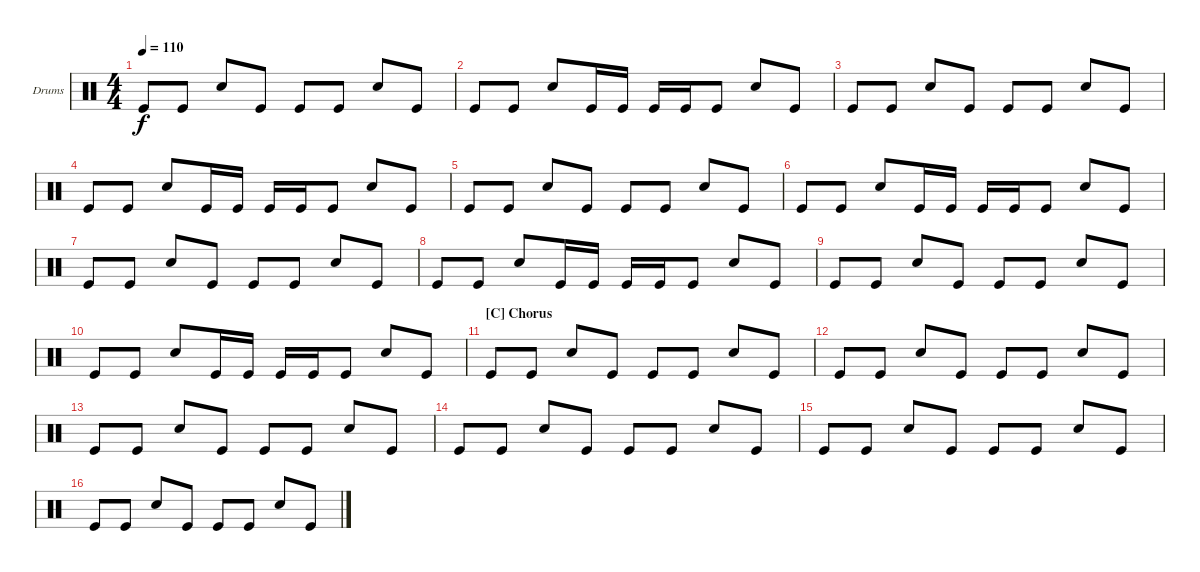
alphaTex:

\bracketExtendMode groupsimilarinstruments
\firstSystemTrackNameOrientation horizontal
\otherSystemsTrackNameOrientation horizontal
\track ("Electric Drum Kit" "Drums") {instrument percussion}
\staff {score}
\articulation defaults
\ts (4 4)
\tempo 110
\clef neutral
\ks c "Kick (hit)".8{dy f} "Kick (hit)".8 "Snare (hit) 2".8 "Kick (hit)".8 "Kick (hit)".8 "Kick (hit)".8 "Snare (hit) 2".8 "Kick (hit)".8
|
"Kick (hit)".8 "Kick (hit)".8 "Snare (hit) 2".8 "Kick (hit)".16 "Kick (hit)".16 "Kick (hit)".16 "Kick (hit)".16 "Kick (hit)".8 "Snare (hit) 2".8 "Kick (hit)".8 |
"Kick (hit)".8 "Kick (hit)".8 "Snare (hit) 2".8 "Kick (hit)".8 "Kick (hit)".8 "Kick (hit)".8 "Snare (hit) 2".8 "Kick (hit)".8 |
"Kick (hit)".8 "Kick (hit)".8 "Snare (hit) 2".8 "Kick (hit)".16 "Kick (hit)".16 "Kick (hit)".16 "Kick (hit)".16 "Kick (hit)".8 "Snare (hit) 2".8 "Kick (hit)".8 |
"Kick (hit)".8 "Kick (hit)".8 "Snare (hit) 2".8 "Kick (hit)".8 "Kick (hit)".8 "Kick (hit)".8 "Snare (hit) 2".8 "Kick (hit)".8 |
"Kick (hit)".8 "Kick (hit)".8 "Snare (hit) 2".8 "Kick (hit)".16 "Kick (hit)".16 "Kick (hit)".16 "Kick (hit)".16 "Kick (hit)".8 "Snare (hit) 2".8 "Kick (hit)".8 |
"Kick (hit)".8 "Kick (hit)".8 "Snare (hit) 2".8 "Kick (hit)".8 "Kick (hit)".8 "Kick (hit)".8 "Snare (hit) 2".8 "Kick (hit)".8 |
"Kick (hit)".8 "Kick (hit)".8 "Snare (hit) 2".8 "Kick (hit)".16 "Kick (hit)".16 "Kick (hit)".16 "Kick (hit)".16 "Kick (hit)".8 "Snare (hit) 2".8 "Kick (hit)".8 |
"Kick (hit)".8 "Kick (hit)".8 "Snare (hit) 2".8 "Kick (hit)".8 "Kick (hit)".8 "Kick (hit)".8 "Snare (hit) 2".8 "Kick (hit)".8 |
"Kick (hit)".8 "Kick (hit)".8 "Snare (hit) 2".8 "Kick (hit)".16 "Kick (hit)".16 "Kick (hit)".16 "Kick (hit)".16 "Kick (hit)".8 "Snare (hit) 2".8 "Kick (hit)".8 |
\section ("C" "Chorus")
"Kick (hit)".8 "Kick (hit)".8 "Snare (hit) 2".8 "Kick (hit)".8 "Kick (hit)".8 "Kick (hit)".8 "Snare (hit) 2".8 "Kick (hit)".8 |
"Kick (hit)".8 "Kick (hit)".8 "Snare (hit) 2".8 "Kick (hit)".8 "Kick (hit)".8 "Kick (hit)".8 "Snare (hit) 2".8 "Kick (hit)".8 |
"Kick (hit)".8 "Kick (hit)".8 "Snare (hit) 2".8 "Kick (hit)".8 "Kick (hit)".8 "Kick (hit)".8 "Snare (hit) 2".8 "Kick (hit)".8 |
"Kick (hit)".8 "Kick (hit)".8 "Snare (hit) 2".8 "Kick (hit)".8 "Kick (hit)".8 "Kick (hit)".8 "Snare (hit) 2".8 "Kick (hit)".8 |
"Kick (hit)".8 "Kick (hit)".8 "Snare (hit) 2".8 "Kick (hit)".8 "Kick (hit)".8 "Kick (hit)".8 "Snare (hit) 2".8 "Kick (hit)".8 |
"Kick (hit)".8 "Kick (hit)".8 "Snare (hit) 2".8 "Kick (hit)".8 "Kick (hit)".8 "Kick (hit)".8 "Snare (hit) 2".8 "Kick (hit)".8
